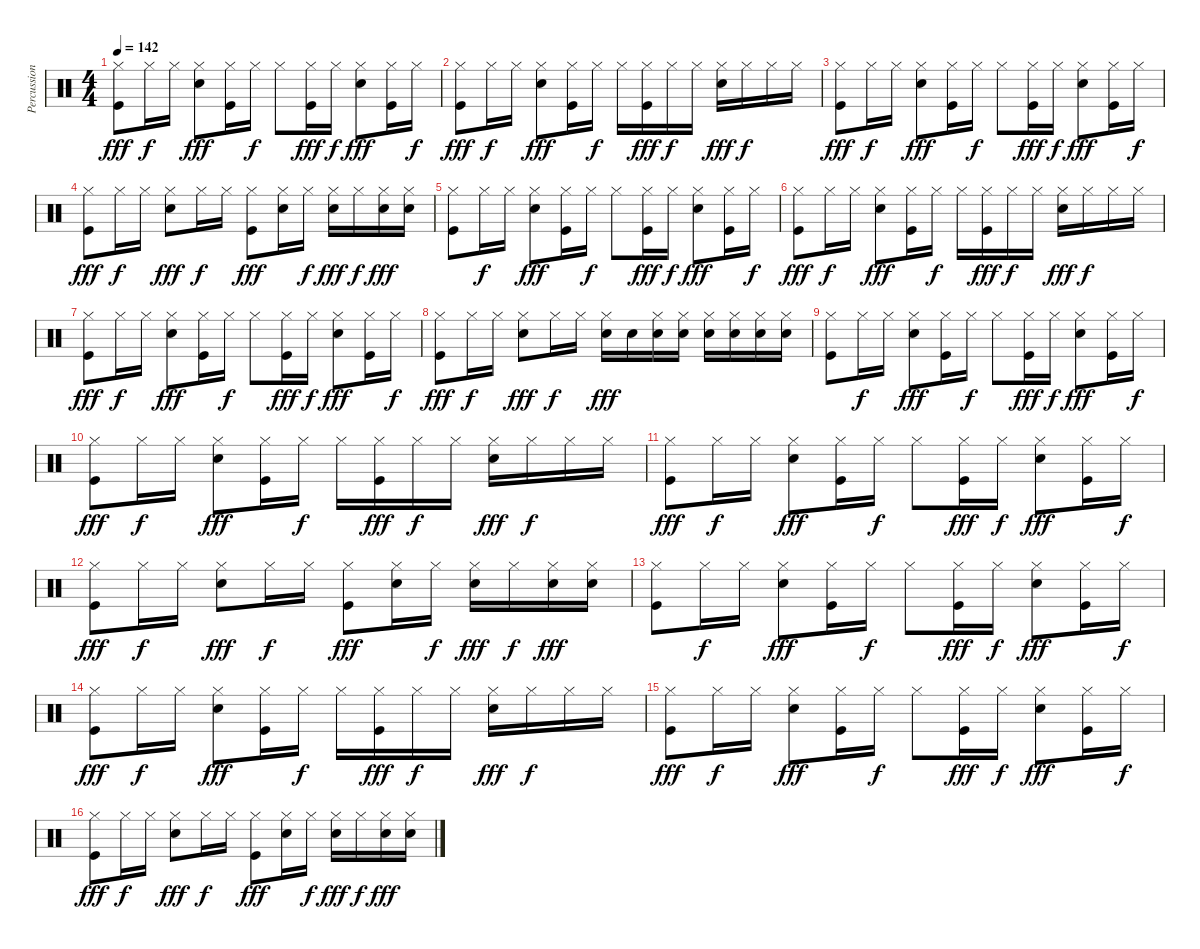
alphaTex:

\track ("Percussions" "Percussion") {instrument percussion}
\staff {score}
\articulation defaults
\ts (4 4)
\tempo 142
\clef neutral
\ks c
("Hi-Hat (closed)" "Kick (hit)").8{dy fff} "Hi-Hat (closed)".16{dy f} "Hi-Hat (closed)".16 ("Hi-Hat (closed)" "Electric Snare (hit)").8{dy fff} ("Hi-Hat (closed)" "Kick (hit)").16 "Hi-Hat (closed)".16{dy f} "Hi-Hat (closed)".8 ("Hi-Hat (closed)" "Kick (hit)").16{dy fff} "Hi-Hat (closed)".16{dy f} ("Hi-Hat (closed)" "Electric Snare (hit)").8{dy fff} ("Hi-Hat (closed)" "Kick (hit)").16 "Hi-Hat (closed)".16{dy f} |
("Hi-Hat (closed)" "Kick (hit)").8{dy fff} "Hi-Hat (closed)".16{dy f} "Hi-Hat (closed)".16 ("Hi-Hat (closed)" "Electric Snare (hit)").8{dy fff} ("Hi-Hat (closed)" "Kick (hit)").16 "Hi-Hat (closed)".16{dy f} "Hi-Hat (closed)".16 ("Hi-Hat (closed)" "Kick (hit)").16{dy fff} "Hi-Hat (closed)".16{dy f} "Hi-Hat (closed)".16 ("Hi-Hat (closed)" "Electric Snare (hit)").16{dy fff} "Hi-Hat (closed)".16{dy f} "Hi-Hat (closed)".16 "Hi-Hat (closed)".16 |
("Hi-Hat (closed)" "Kick (hit)").8{dy fff} "Hi-Hat (closed)".16{dy f} "Hi-Hat (closed)".16 ("Hi-Hat (closed)" "Electric Snare (hit)").8{dy fff} ("Hi-Hat (closed)" "Kick (hit)").16 "Hi-Hat (closed)".16{dy f} "Hi-Hat (closed)".8 ("Hi-Hat (closed)" "Kick (hit)").16{dy fff} "Hi-Hat (closed)".16{dy f} ("Hi-Hat (closed)" "Electric Snare (hit)").8{dy fff} ("Hi-Hat (closed)" "Kick (hit)").16 "Hi-Hat (closed)".16{dy f} |
("Hi-Hat (closed)" "Kick (hit)").8{dy fff} "Hi-Hat (closed)".16{dy f} "Hi-Hat (closed)".16 ("Hi-Hat (closed)" "Electric Snare (hit)").8{dy fff} "Hi-Hat (closed)".16{dy f} "Hi-Hat (closed)".16 ("Hi-Hat (closed)" "Kick (hit)").8{dy fff} ("Hi-Hat (closed)" "Electric Snare (hit)").16 "Hi-Hat (closed)".16{dy f} ("Hi-Hat (closed)" "Electric Snare (hit)").16{dy fff} "Hi-Hat (closed)".16{dy f} ("Hi-Hat (closed)" "Electric Snare (hit)").16{dy fff} ("Hi-Hat (closed)" "Electric Snare (hit)").16 |
("Hi-Hat (closed)" "Kick (hit)").8 "Hi-Hat (closed)".16{dy f} "Hi-Hat (closed)".16 ("Hi-Hat (closed)" "Electric Snare (hit)").8{dy fff} ("Hi-Hat (closed)" "Kick (hit)").16 "Hi-Hat (closed)".16{dy f} "Hi-Hat (closed)".8 ("Hi-Hat (closed)" "Kick (hit)").16{dy fff} "Hi-Hat (closed)".16{dy f} ("Hi-Hat (closed)" "Electric Snare (hit)").8{dy fff} ("Hi-Hat (closed)" "Kick (hit)").16 "Hi-Hat (closed)".16{dy f} |
("Hi-Hat (closed)" "Kick (hit)").8{dy fff} "Hi-Hat (closed)".16{dy f} "Hi-Hat (closed)".16 ("Hi-Hat (closed)" "Electric Snare (hit)").8{dy fff} ("Hi-Hat (closed)" "Kick (hit)").16 "Hi-Hat (closed)".16{dy f} "Hi-Hat (closed)".16 ("Hi-Hat (closed)" "Kick (hit)").16{dy fff} "Hi-Hat (closed)".16{dy f} "Hi-Hat (closed)".16 ("Hi-Hat (closed)" "Electric Snare (hit)").16{dy fff} "Hi-Hat (closed)".16{dy f} "Hi-Hat (closed)".16 "Hi-Hat (closed)".16 |
("Hi-Hat (closed)" "Kick (hit)").8{dy fff} "Hi-Hat (closed)".16{dy f} "Hi-Hat (closed)".16 ("Hi-Hat (closed)" "Electric Snare (hit)").8{dy fff} ("Hi-Hat (closed)" "Kick (hit)").16 "Hi-Hat (closed)".16{dy f} "Hi-Hat (closed)".8 ("Hi-Hat (closed)" "Kick (hit)").16{dy fff} "Hi-Hat (closed)".16{dy f} ("Hi-Hat (closed)" "Electric Snare (hit)").8{dy fff} ("Hi-Hat (closed)" "Kick (hit)").16 "Hi-Hat (closed)".16{dy f} |
("Hi-Hat (closed)" "Kick (hit)").8{dy fff} "Hi-Hat (closed)".16{dy f} "Hi-Hat (closed)".16 ("Hi-Hat (closed)" "Electric Snare (hit)").8{dy fff} "Hi-Hat (closed)".16{dy f} "Hi-Hat (closed)".16 ("Hi-Hat (closed)" "Electric Snare (hit)").16{dy fff} "Electric Snare (hit)".16 ("Hi-Hat (closed)" "Electric Snare (hit)").16 ("Hi-Hat (closed)" "Electric Snare (hit)").16 ("Hi-Hat (closed)" "Electric Snare (hit)").16 ("Hi-Hat (closed)" "Electric Snare (hit)").16 ("Hi-Hat (closed)" "Electric Snare (hit)").16 ("Hi-Hat (closed)" "Electric Snare (hit)").16 |
("Hi-Hat (closed)" "Kick (hit)").8 "Hi-Hat (closed)".16{dy f} "Hi-Hat (closed)".16 ("Hi-Hat (closed)" "Electric Snare (hit)").8{dy fff} ("Hi-Hat (closed)" "Kick (hit)").16 "Hi-Hat (closed)".16{dy f} "Hi-Hat (closed)".8 ("Hi-Hat (closed)" "Kick (hit)").16{dy fff} "Hi-Hat (closed)".16{dy f} ("Hi-Hat (closed)" "Electric Snare (hit)").8{dy fff} ("Hi-Hat (closed)" "Kick (hit)").16 "Hi-Hat (closed)".16{dy f} |
("Hi-Hat (closed)" "Kick (hit)").8{dy fff} "Hi-Hat (closed)".16{dy f} "Hi-Hat (closed)".16 ("Hi-Hat (closed)" "Electric Snare (hit)").8{dy fff} ("Hi-Hat (closed)" "Kick (hit)").16 "Hi-Hat (closed)".16{dy f} "Hi-Hat (closed)".16 ("Hi-Hat (closed)" "Kick (hit)").16{dy fff} "Hi-Hat (closed)".16{dy f} "Hi-Hat (closed)".16 ("Hi-Hat (closed)" "Electric Snare (hit)").16{dy fff} "Hi-Hat (closed)".16{dy f} "Hi-Hat (closed)".16 "Hi-Hat (closed)".16 |
("Hi-Hat (closed)" "Kick (hit)").8{dy fff} "Hi-Hat (closed)".16{dy f} "Hi-Hat (closed)".16 ("Hi-Hat (closed)" "Electric Snare (hit)").8{dy fff} ("Hi-Hat (closed)" "Kick (hit)").16 "Hi-Hat (closed)".16{dy f} "Hi-Hat (closed)".8 ("Hi-Hat (closed)" "Kick (hit)").16{dy fff} "Hi-Hat (closed)".16{dy f} ("Hi-Hat (closed)" "Electric Snare (hit)").8{dy fff} ("Hi-Hat (closed)" "Kick (hit)").16 "Hi-Hat (closed)".16{dy f} |
("Hi-Hat (closed)" "Kick (hit)").8{dy fff} "Hi-Hat (closed)".16{dy f} "Hi-Hat (closed)".16 ("Hi-Hat (closed)" "Electric Snare (hit)").8{dy fff} "Hi-Hat (closed)".16{dy f} "Hi-Hat (closed)".16 ("Hi-Hat (closed)" "Kick (hit)").8{dy fff} ("Hi-Hat (closed)" "Electric Snare (hit)").16 "Hi-Hat (closed)".16{dy f} ("Hi-Hat (closed)" "Electric Snare (hit)").16{dy fff} "Hi-Hat (closed)".16{dy f} ("Hi-Hat (closed)" "Electric Snare (hit)").16{dy fff} ("Hi-Hat (closed)" "Electric Snare (hit)").16 |
("Hi-Hat (closed)" "Kick (hit)").8 "Hi-Hat (closed)".16{dy f} "Hi-Hat (closed)".16 ("Hi-Hat (closed)" "Electric Snare (hit)").8{dy fff} ("Hi-Hat (closed)" "Kick (hit)").16 "Hi-Hat (closed)".16{dy f} "Hi-Hat (closed)".8 ("Hi-Hat (closed)" "Kick (hit)").16{dy fff} "Hi-Hat (closed)".16{dy f} ("Hi-Hat (closed)" "Electric Snare (hit)").8{dy fff} ("Hi-Hat (closed)" "Kick (hit)").16 "Hi-Hat (closed)".16{dy f} |
("Hi-Hat (closed)" "Kick (hit)").8{dy fff} "Hi-Hat (closed)".16{dy f} "Hi-Hat (closed)".16 ("Hi-Hat (closed)" "Electric Snare (hit)").8{dy fff} ("Hi-Hat (closed)" "Kick (hit)").16 "Hi-Hat (closed)".16{dy f} "Hi-Hat (closed)".16 ("Hi-Hat (closed)" "Kick (hit)").16{dy fff} "Hi-Hat (closed)".16{dy f} "Hi-Hat (closed)".16 ("Hi-Hat (closed)" "Electric Snare (hit)").16{dy fff} "Hi-Hat (closed)".16{dy f} "Hi-Hat (closed)".16 "Hi-Hat (closed)".16 |
("Hi-Hat (closed)" "Kick (hit)").8{dy fff} "Hi-Hat (closed)".16{dy f} "Hi-Hat (closed)".16 ("Hi-Hat (closed)" "Electric Snare (hit)").8{dy fff} ("Hi-Hat (closed)" "Kick (hit)").16 "Hi-Hat (closed)".16{dy f} "Hi-Hat (closed)".8 ("Hi-Hat (closed)" "Kick (hit)").16{dy fff} "Hi-Hat (closed)".16{dy f} ("Hi-Hat (closed)" "Electric Snare (hit)").8{dy fff} ("Hi-Hat (closed)" "Kick (hit)").16 "Hi-Hat (closed)".16{dy f} |
("Hi-Hat (closed)" "Kick (hit)").8{dy fff} "Hi-Hat (closed)".16{dy f} "Hi-Hat (closed)".16 ("Hi-Hat (closed)" "Electric Snare (hit)").8{dy fff} "Hi-Hat (closed)".16{dy f} "Hi-Hat (closed)".16 ("Hi-Hat (closed)" "Kick (hit)").8{dy fff} ("Hi-Hat (closed)" "Electric Snare (hit)").16 "Hi-Hat (closed)".16{dy f} ("Hi-Hat (closed)" "Electric Snare (hit)").16{dy fff} "Hi-Hat (closed)".16{dy f} ("Hi-Hat (closed)" "Electric Snare (hit)").16{dy fff} ("Hi-Hat (closed)" "Electric Snare (hit)").16
